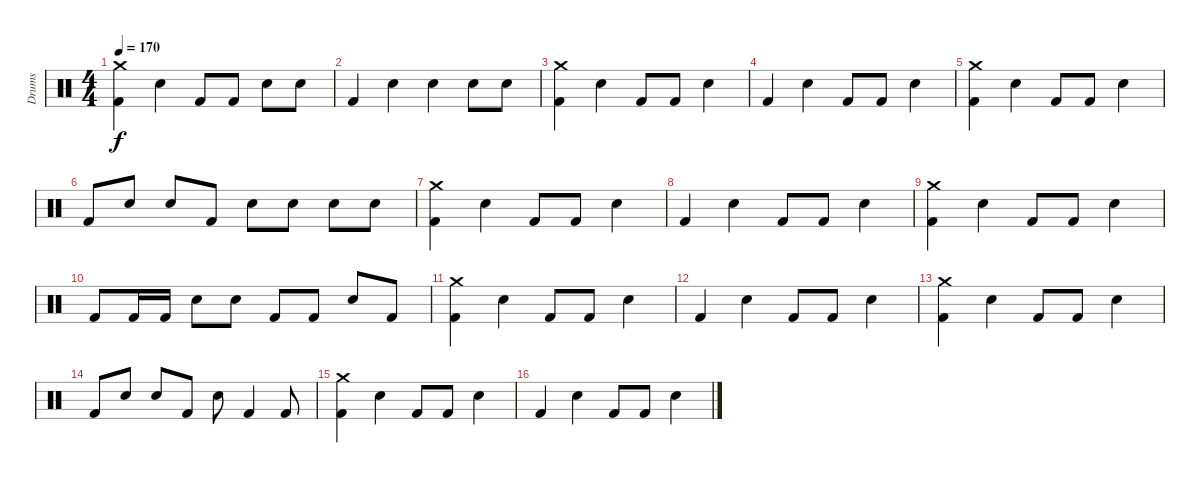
\track ("Drums" "Drums") {instrument percussion}
\staff {score}
\articulation defaults
\ts (4 4)
\tempo 170
\clef neutral
\ks c
("Crash medium (hit)" "Kick (hit) 2").4{dy f} "Snare (hit) 2".4 "Kick (hit) 2".8 "Kick (hit) 2".8 "Snare (hit) 2".8 "Snare (hit) 2".8 |
"Kick (hit) 2".4 "Snare (hit) 2".4 "Snare (hit) 2".4 "Snare (hit) 2".8 "Snare (hit) 2".8 |
("Crash medium (hit)" "Kick (hit) 2").4 "Snare (hit) 2".4 "Kick (hit) 2".8 "Kick (hit) 2".8 "Snare (hit) 2".4 |
"Kick (hit) 2".4 "Snare (hit) 2".4 "Kick (hit) 2".8 "Kick (hit) 2".8 "Snare (hit) 2".4 |
("Crash medium (hit)" "Kick (hit) 2").4 "Snare (hit) 2".4 "Kick (hit) 2".8 "Kick (hit) 2".8 "Snare (hit) 2".4 |
"Kick (hit) 2".8 "Snare (hit) 2".8 "Snare (hit) 2".8 "Kick (hit) 2".8 "Snare (hit) 2".8 "Snare (hit) 2".8 "Snare (hit) 2".8 "Snare (hit) 2".8 |
("Crash medium (hit)" "Kick (hit) 2").4 "Snare (hit) 2".4 "Kick (hit) 2".8 "Kick (hit) 2".8 "Snare (hit) 2".4 |
"Kick (hit) 2".4 "Snare (hit) 2".4 "Kick (hit) 2".8 "Kick (hit) 2".8 "Snare (hit) 2".4 |
("Crash medium (hit)" "Kick (hit) 2").4 "Snare (hit) 2".4 "Kick (hit) 2".8 "Kick (hit) 2".8 "Snare (hit) 2".4 |
"Kick (hit) 2".8 "Kick (hit) 2".16 "Kick (hit) 2".16 "Snare (hit) 2".8 "Snare (hit) 2".8 "Kick (hit) 2".8 "Kick (hit) 2".8 "Snare (hit) 2".8 "Kick (hit) 2".8 |
("Crash medium (hit)" "Kick (hit) 2").4 "Snare (hit) 2".4 "Kick (hit) 2".8 "Kick (hit) 2".8 "Snare (hit) 2".4 |
"Kick (hit) 2".4 "Snare (hit) 2".4 "Kick (hit) 2".8 "Kick (hit) 2".8 "Snare (hit) 2".4 |
("Crash medium (hit)" "Kick (hit) 2").4 "Snare (hit) 2".4 "Kick (hit) 2".8 "Kick (hit) 2".8 "Snare (hit) 2".4 |
"Kick (hit) 2".8 "Snare (hit) 2".8 "Snare (hit) 2".8 "Kick (hit) 2".8 "Snare (hit) 2".8 "Kick (hit) 2".4 "Kick (hit) 2".8 |
("Crash medium (hit)" "Kick (hit) 2").4 "Snare (hit) 2".4 "Kick (hit) 2".8 "Kick (hit) 2".8 "Snare (hit) 2".4 |
"Kick (hit) 2".4 "Snare (hit) 2".4 "Kick (hit) 2".8 "Kick (hit) 2".8 "Snare (hit) 2".4
